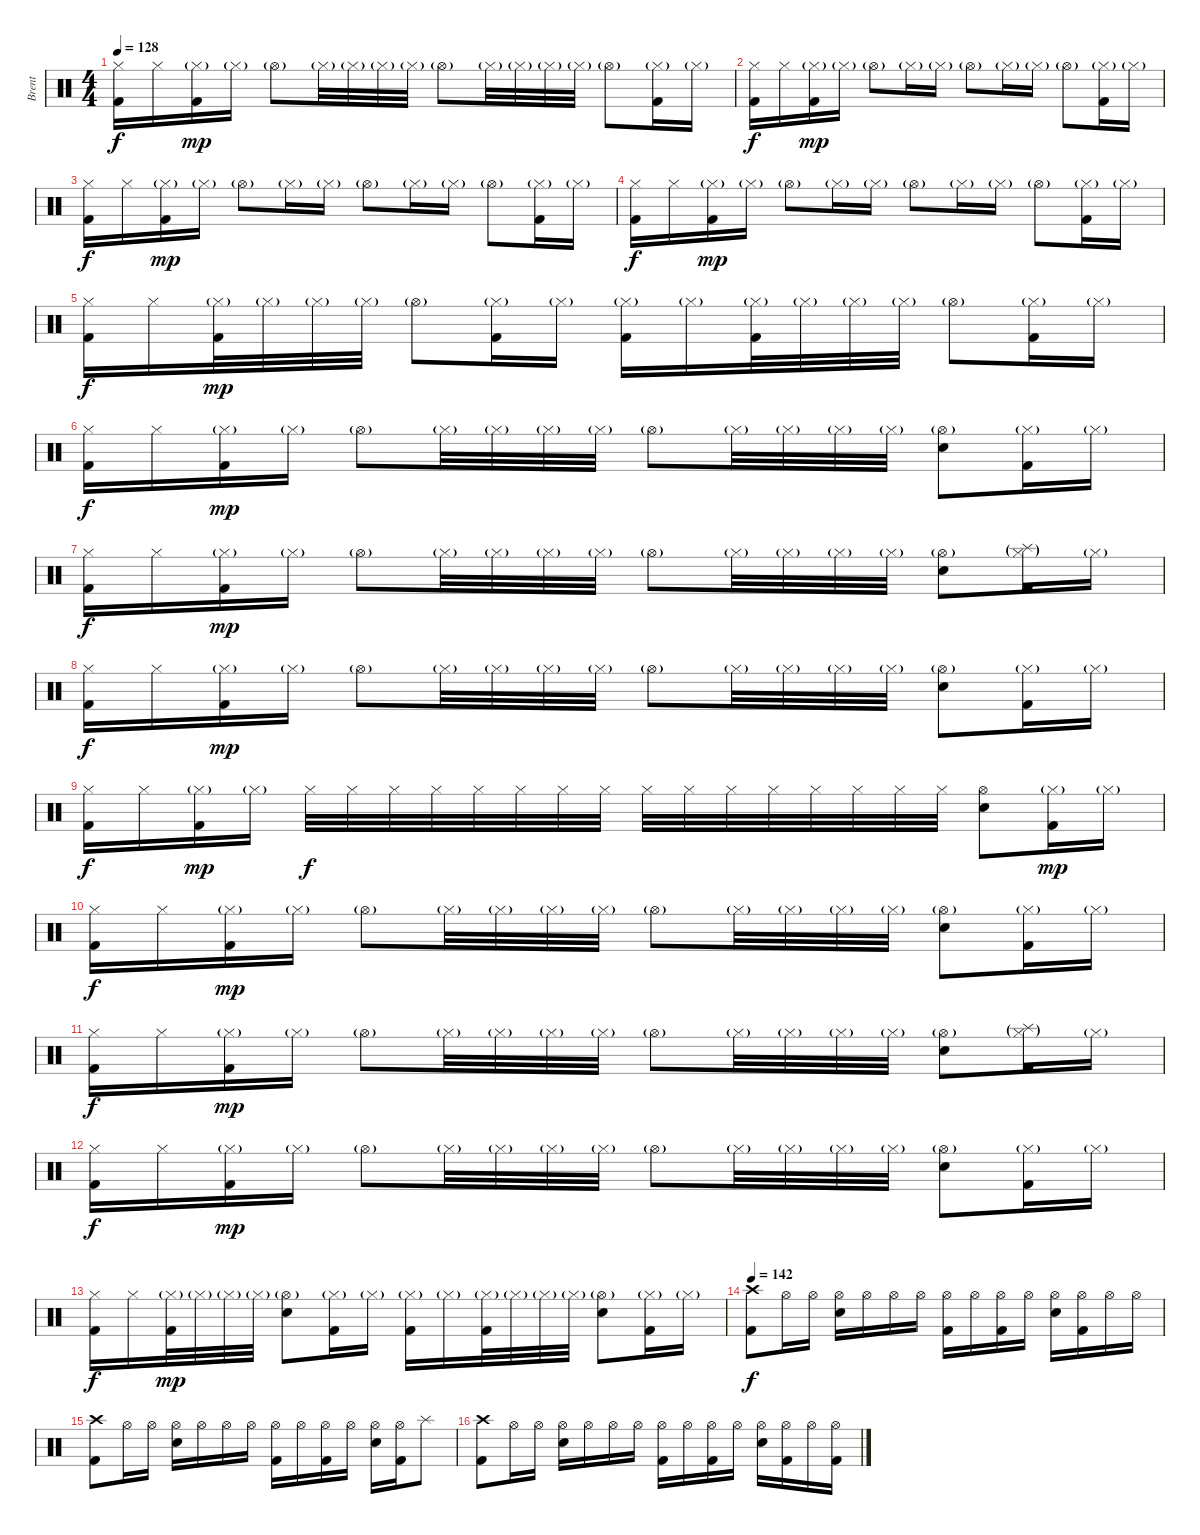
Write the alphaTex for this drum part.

\track ("Brent" "Brent") {instrument percussion}
\staff {score}
\articulation defaults
\ts (4 4)
\tempo 128
\clef neutral
\ks c
("Hi-Hat (closed)" "Kick (hit) 2").16{dy f} "Hi-Hat (closed)".16 ("Hi-Hat (closed)"{g} "Kick (hit) 2").16{dy mp} "Hi-Hat (closed)"{g}.16 "Hi-Hat (open)"{g}.8 "Hi-Hat (closed)"{g}.32 "Hi-Hat (closed)"{g}.32 "Hi-Hat (closed)"{g}.32 "Hi-Hat (closed)"{g}.32 "Hi-Hat (open)"{g}.8 "Hi-Hat (closed)"{g}.32 "Hi-Hat (closed)"{g}.32 "Hi-Hat (closed)"{g}.32 "Hi-Hat (closed)"{g}.32 "Hi-Hat (open)"{g}.8 ("Hi-Hat (closed)"{g} "Kick (hit) 2").16 "Hi-Hat (closed)"{g}.16 |
("Hi-Hat (closed)" "Kick (hit) 2").16{dy f} "Hi-Hat (closed)".16 ("Hi-Hat (closed)"{g} "Kick (hit) 2").16{dy mp} "Hi-Hat (closed)"{g}.16 "Hi-Hat (open)"{g}.8 "Hi-Hat (closed)"{g}.16 "Hi-Hat (closed)"{g}.16 "Hi-Hat (open)"{g}.8 "Hi-Hat (closed)"{g}.16 "Hi-Hat (closed)"{g}.16 "Hi-Hat (open)"{g}.8 ("Hi-Hat (closed)"{g} "Kick (hit) 2").16 "Hi-Hat (closed)"{g}.16 |
("Hi-Hat (closed)" "Kick (hit) 2").16{dy f} "Hi-Hat (closed)".16 ("Hi-Hat (closed)"{g} "Kick (hit) 2").16{dy mp} "Hi-Hat (closed)"{g}.16 "Hi-Hat (open)"{g}.8 "Hi-Hat (closed)"{g}.16 "Hi-Hat (closed)"{g}.16 "Hi-Hat (open)"{g}.8 "Hi-Hat (closed)"{g}.16 "Hi-Hat (closed)"{g}.16 "Hi-Hat (open)"{g}.8 ("Hi-Hat (closed)"{g} "Kick (hit) 2").16 "Hi-Hat (closed)"{g}.16 |
("Hi-Hat (closed)" "Kick (hit) 2").16{dy f} "Hi-Hat (closed)".16 ("Hi-Hat (closed)"{g} "Kick (hit) 2").16{dy mp} "Hi-Hat (closed)"{g}.16 "Hi-Hat (open)"{g}.8 "Hi-Hat (closed)"{g}.16 "Hi-Hat (closed)"{g}.16 "Hi-Hat (open)"{g}.8 "Hi-Hat (closed)"{g}.16 "Hi-Hat (closed)"{g}.16 "Hi-Hat (open)"{g}.8 ("Hi-Hat (closed)"{g} "Kick (hit) 2").16 "Hi-Hat (closed)"{g}.16 |
("Hi-Hat (closed)" "Kick (hit) 2").16{dy f} "Hi-Hat (closed)".16 ("Hi-Hat (closed)"{g} "Kick (hit) 2").32{dy mp} "Hi-Hat (closed)"{g}.32 "Hi-Hat (closed)"{g}.32 "Hi-Hat (closed)"{g}.32 "Hi-Hat (open)"{g}.8 ("Hi-Hat (closed)"{g} "Kick (hit) 2").16 "Hi-Hat (closed)"{g}.16 ("Hi-Hat (closed)"{g} "Kick (hit) 2").16 "Hi-Hat (closed)"{g}.16 ("Hi-Hat (closed)"{g} "Kick (hit) 2").32 "Hi-Hat (closed)"{g}.32 "Hi-Hat (closed)"{g}.32 "Hi-Hat (closed)"{g}.32 "Hi-Hat (open)"{g}.8 ("Hi-Hat (closed)"{g} "Kick (hit) 2").16 "Hi-Hat (closed)"{g}.16 |
("Hi-Hat (closed)" "Kick (hit) 2").16{dy f} "Hi-Hat (closed)".16 ("Hi-Hat (closed)"{g} "Kick (hit) 2").16{dy mp} "Hi-Hat (closed)"{g}.16 "Hi-Hat (open)"{g}.8 "Hi-Hat (closed)"{g}.32 "Hi-Hat (closed)"{g}.32 "Hi-Hat (closed)"{g}.32 "Hi-Hat (closed)"{g}.32 "Hi-Hat (open)"{g}.8 "Hi-Hat (closed)"{g}.32 "Hi-Hat (closed)"{g}.32 "Hi-Hat (closed)"{g}.32 "Hi-Hat (closed)"{g}.32 ("Hi-Hat (open)"{g} "Snare (hit) 2").8 ("Hi-Hat (closed)"{g} "Kick (hit) 2").16 "Hi-Hat (closed)"{g}.16 |
("Hi-Hat (closed)" "Kick (hit) 2").16{dy f} "Hi-Hat (closed)".16 ("Hi-Hat (closed)"{g} "Kick (hit) 2").16{dy mp} "Hi-Hat (closed)"{g}.16 "Hi-Hat (open)"{g}.8 "Hi-Hat (closed)"{g}.32 "Hi-Hat (closed)"{g}.32 "Hi-Hat (closed)"{g}.32 "Hi-Hat (closed)"{g}.32 "Hi-Hat (open)"{g}.8 "Hi-Hat (closed)"{g}.32 "Hi-Hat (closed)"{g}.32 "Hi-Hat (closed)"{g}.32 "Hi-Hat (closed)"{g}.32 ("Hi-Hat (open)"{g} "Snare (hit) 2").8 ("Splash (hit)"{g} "Hi-Hat (closed)"{g} "Kick (hit) 2").16 "Hi-Hat (closed)"{g}.16 |
("Hi-Hat (closed)" "Kick (hit) 2").16{dy f} "Hi-Hat (closed)".16 ("Hi-Hat (closed)"{g} "Kick (hit) 2").16{dy mp} "Hi-Hat (closed)"{g}.16 "Hi-Hat (open)"{g}.8 "Hi-Hat (closed)"{g}.32 "Hi-Hat (closed)"{g}.32 "Hi-Hat (closed)"{g}.32 "Hi-Hat (closed)"{g}.32 "Hi-Hat (open)"{g}.8 "Hi-Hat (closed)"{g}.32 "Hi-Hat (closed)"{g}.32 "Hi-Hat (closed)"{g}.32 "Hi-Hat (closed)"{g}.32 ("Hi-Hat (open)"{g} "Snare (hit) 2").8 ("Hi-Hat (closed)"{g} "Kick (hit) 2").16 "Hi-Hat (closed)"{g}.16 |
("Hi-Hat (closed)" "Kick (hit) 2").16{dy f} "Hi-Hat (closed)".16 ("Hi-Hat (closed)"{g} "Kick (hit) 2").16{dy mp} "Hi-Hat (closed)"{g}.16 "Hi-Hat (closed)".32{dy f} "Hi-Hat (closed)".32 "Hi-Hat (closed)".32 "Hi-Hat (closed)".32 "Hi-Hat (closed)".32 "Hi-Hat (closed)".32 "Hi-Hat (closed)".32 "Hi-Hat (closed)".32 "Hi-Hat (closed)".32 "Hi-Hat (closed)".32 "Hi-Hat (closed)".32 "Hi-Hat (closed)".32 "Hi-Hat (closed)".32 "Hi-Hat (closed)".32 "Hi-Hat (closed)".32 "Hi-Hat (closed)".32 ("Hi-Hat (open)" "Snare (hit) 2").8 ("Hi-Hat (closed)"{g} "Kick (hit) 2").16{dy mp} "Hi-Hat (closed)"{g}.16 |
("Hi-Hat (closed)" "Kick (hit) 2").16{dy f} "Hi-Hat (closed)".16 ("Hi-Hat (closed)"{g} "Kick (hit) 2").16{dy mp} "Hi-Hat (closed)"{g}.16 "Hi-Hat (open)"{g}.8 "Hi-Hat (closed)"{g}.32 "Hi-Hat (closed)"{g}.32 "Hi-Hat (closed)"{g}.32 "Hi-Hat (closed)"{g}.32 "Hi-Hat (open)"{g}.8 "Hi-Hat (closed)"{g}.32 "Hi-Hat (closed)"{g}.32 "Hi-Hat (closed)"{g}.32 "Hi-Hat (closed)"{g}.32 ("Hi-Hat (open)"{g} "Snare (hit) 2").8 ("Hi-Hat (closed)"{g} "Kick (hit) 2").16 "Hi-Hat (closed)"{g}.16 |
("Hi-Hat (closed)" "Kick (hit) 2").16{dy f} "Hi-Hat (closed)".16 ("Hi-Hat (closed)"{g} "Kick (hit) 2").16{dy mp} "Hi-Hat (closed)"{g}.16 "Hi-Hat (open)"{g}.8 "Hi-Hat (closed)"{g}.32 "Hi-Hat (closed)"{g}.32 "Hi-Hat (closed)"{g}.32 "Hi-Hat (closed)"{g}.32 "Hi-Hat (open)"{g}.8 "Hi-Hat (closed)"{g}.32 "Hi-Hat (closed)"{g}.32 "Hi-Hat (closed)"{g}.32 "Hi-Hat (closed)"{g}.32 ("Hi-Hat (open)"{g} "Snare (hit) 2").8 ("Splash (hit)"{g} "Hi-Hat (closed)"{g} "Kick (hit) 2").16 "Hi-Hat (closed)"{g}.16 |
("Hi-Hat (closed)" "Kick (hit) 2").16{dy f} "Hi-Hat (closed)".16 ("Hi-Hat (closed)"{g} "Kick (hit) 2").16{dy mp} "Hi-Hat (closed)"{g}.16 "Hi-Hat (open)"{g}.8 "Hi-Hat (closed)"{g}.32 "Hi-Hat (closed)"{g}.32 "Hi-Hat (closed)"{g}.32 "Hi-Hat (closed)"{g}.32 "Hi-Hat (open)"{g}.8 "Hi-Hat (closed)"{g}.32 "Hi-Hat (closed)"{g}.32 "Hi-Hat (closed)"{g}.32 "Hi-Hat (closed)"{g}.32 ("Hi-Hat (open)"{g} "Snare (hit) 2").8 ("Hi-Hat (closed)"{g} "Kick (hit) 2").16 "Hi-Hat (closed)"{g}.16 |
("Hi-Hat (closed)" "Kick (hit) 2").16{dy f} "Hi-Hat (closed)".16 ("Hi-Hat (closed)"{g} "Kick (hit) 2").32{dy mp} "Hi-Hat (closed)"{g}.32 "Hi-Hat (closed)"{g}.32 "Hi-Hat (closed)"{g}.32 ("Hi-Hat (open)"{g} "Snare (hit) 2").8 ("Hi-Hat (closed)"{g} "Kick (hit) 2").16 "Hi-Hat (closed)"{g}.16 ("Hi-Hat (closed)"{g} "Kick (hit) 2").16 "Hi-Hat (closed)"{g}.16 ("Hi-Hat (closed)"{g} "Kick (hit) 2").32 "Hi-Hat (closed)"{g}.32 "Hi-Hat (closed)"{g}.32 "Hi-Hat (closed)"{g}.32 ("Hi-Hat (open)"{g} "Snare (hit) 2").8 ("Hi-Hat (closed)"{g} "Kick (hit) 2").16 "Hi-Hat (closed)"{g}.16 |
\tempo 142
("Crash high (hit)" "Kick (hit) 2").8{dy f} "Hi-Hat (open)".16 "Hi-Hat (open)".16 ("Hi-Hat (open)" "Snare (hit) 2").16 "Hi-Hat (open)".16 "Hi-Hat (open)".16 "Hi-Hat (open)".16 ("Hi-Hat (open)" "Kick (hit) 2").16 "Hi-Hat (open)".16 ("Hi-Hat (open)" "Kick (hit) 2").16 "Hi-Hat (open)".16 ("Hi-Hat (open)" "Snare (hit) 2").16 ("Hi-Hat (open)" "Kick (hit) 2").16 "Hi-Hat (open)".16 "Hi-Hat (open)".16 |
("Crash high (hit)" "Kick (hit) 2").8 "Hi-Hat (open)".16 "Hi-Hat (open)".16 ("Hi-Hat (open)" "Snare (hit) 2").16 "Hi-Hat (open)".16 "Hi-Hat (open)".16 "Hi-Hat (open)".16 ("Hi-Hat (open)" "Kick (hit) 2").16 "Hi-Hat (open)".16 ("Hi-Hat (open)" "Kick (hit) 2").16 "Hi-Hat (open)".16 ("Hi-Hat (open)" "Snare (hit) 2").16 ("Hi-Hat (open)" "Kick (hit) 2").16 "Splash (hit)".8 |
("Crash high (hit)" "Kick (hit) 2").8 "Hi-Hat (open)".16 "Hi-Hat (open)".16 ("Hi-Hat (open)" "Snare (hit) 2").16 "Hi-Hat (open)".16 "Hi-Hat (open)".16 "Hi-Hat (open)".16 ("Hi-Hat (open)" "Kick (hit) 2").16 "Hi-Hat (open)".16 ("Hi-Hat (open)" "Kick (hit) 2").16 "Hi-Hat (open)".16 ("Hi-Hat (open)" "Snare (hit) 2").16 ("Hi-Hat (open)" "Kick (hit) 2").16 "Hi-Hat (open)".16 ("Hi-Hat (open)" "Kick (hit) 2").16
